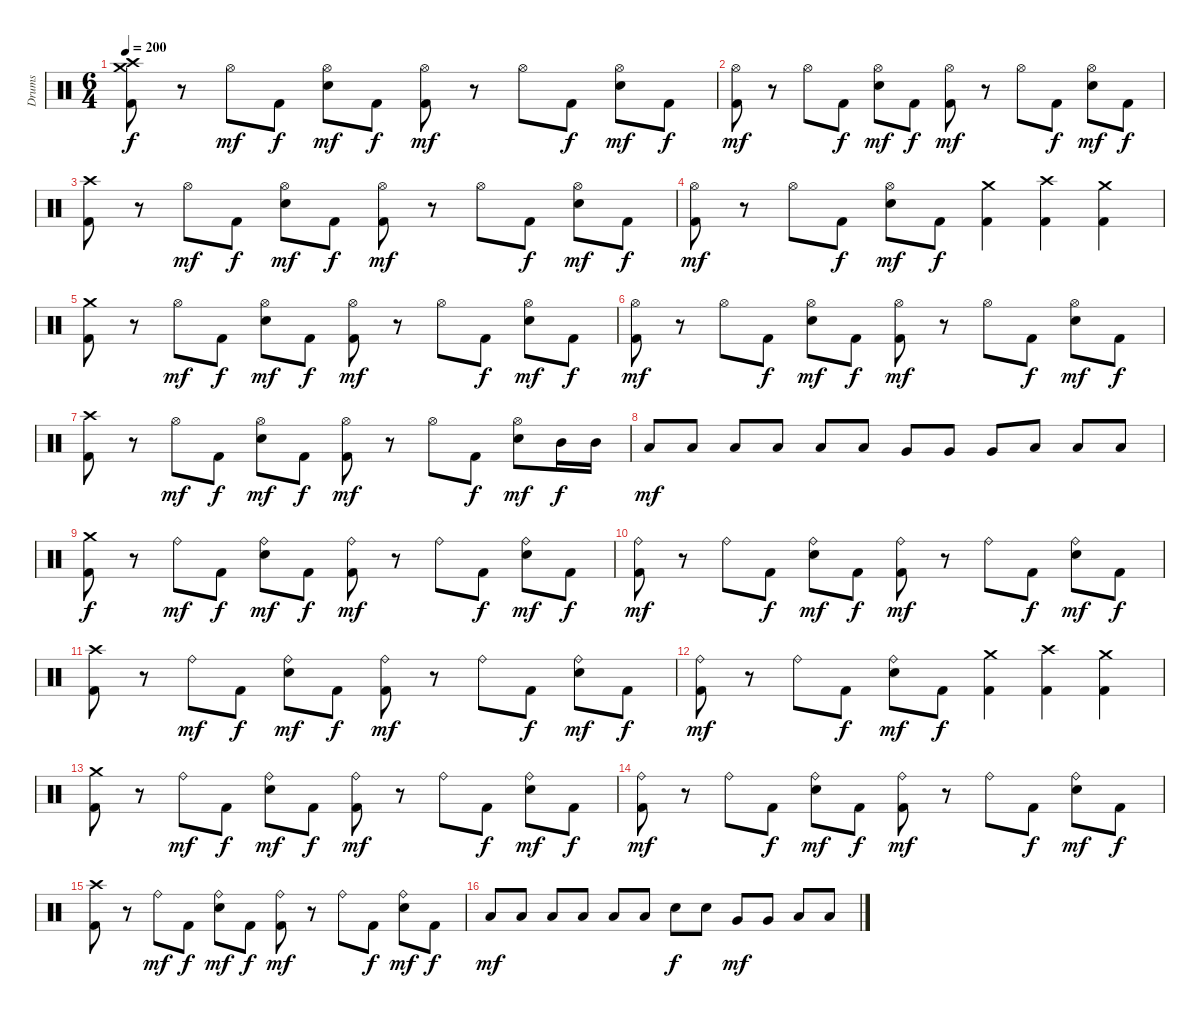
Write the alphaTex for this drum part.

\track ("Drums" "Drums") {instrument percussion}
\staff {score}
\articulation defaults
\ts (6 4)
\tempo 200
\clef neutral
\ks c
("Crash medium (hit)" "Crash high (hit)" "Kick (hit) 2").8{dy f} r.8 "Hi-Hat (open)".8{dy mf} "Kick (hit) 2".8{dy f} ("Hi-Hat (open)" "Snare (hit) 2").8{dy mf} "Kick (hit) 2".8{dy f} ("Hi-Hat (open)" "Kick (hit) 2").8{dy mf} r.8 "Hi-Hat (open)".8 "Kick (hit) 2".8{dy f} ("Hi-Hat (open)" "Snare (hit) 2").8{dy mf} "Kick (hit) 2".8{dy f} |
("Hi-Hat (open)" "Kick (hit) 2").8{dy mf} r.8 "Hi-Hat (open)".8 "Kick (hit) 2".8{dy f} ("Hi-Hat (open)" "Snare (hit) 2").8{dy mf} "Kick (hit) 2".8{dy f} ("Hi-Hat (open)" "Kick (hit) 2").8{dy mf} r.8 "Hi-Hat (open)".8 "Kick (hit) 2".8{dy f} ("Hi-Hat (open)" "Snare (hit) 2").8{dy mf} "Kick (hit) 2".8{dy f} |
("Crash high (hit)" "Kick (hit) 2").8 r.8 "Hi-Hat (open)".8{dy mf} "Kick (hit) 2".8{dy f} ("Hi-Hat (open)" "Snare (hit) 2").8{dy mf} "Kick (hit) 2".8{dy f} ("Hi-Hat (open)" "Kick (hit) 2").8{dy mf} r.8 "Hi-Hat (open)".8 "Kick (hit) 2".8{dy f} ("Hi-Hat (open)" "Snare (hit) 2").8{dy mf} "Kick (hit) 2".8{dy f} |
("Hi-Hat (open)" "Kick (hit) 2").8{dy mf} r.8 "Hi-Hat (open)".8 "Kick (hit) 2".8{dy f} ("Hi-Hat (open)" "Snare (hit) 2").8{dy mf} "Kick (hit) 2".8{dy f} ("Crash medium (hit)" "Kick (hit) 2").4 ("Crash high (hit)" "Kick (hit) 2").4 ("Crash medium (hit)" "Kick (hit) 2").4 |
("Crash medium (hit)" "Kick (hit) 2").8 r.8 "Hi-Hat (open)".8{dy mf} "Kick (hit) 2".8{dy f} ("Hi-Hat (open)" "Snare (hit) 2").8{dy mf} "Kick (hit) 2".8{dy f} ("Hi-Hat (open)" "Kick (hit) 2").8{dy mf} r.8 "Hi-Hat (open)".8 "Kick (hit) 2".8{dy f} ("Hi-Hat (open)" "Snare (hit) 2").8{dy mf} "Kick (hit) 2".8{dy f} |
("Hi-Hat (open)" "Kick (hit) 2").8{dy mf} r.8 "Hi-Hat (open)".8 "Kick (hit) 2".8{dy f} ("Hi-Hat (open)" "Snare (hit) 2").8{dy mf} "Kick (hit) 2".8{dy f} ("Hi-Hat (open)" "Kick (hit) 2").8{dy mf} r.8 "Hi-Hat (open)".8 "Kick (hit) 2".8{dy f} ("Hi-Hat (open)" "Snare (hit) 2").8{dy mf} "Kick (hit) 2".8{dy f} |
("Crash high (hit)" "Kick (hit) 2").8 r.8 "Hi-Hat (open)".8{dy mf} "Kick (hit) 2".8{dy f} ("Hi-Hat (open)" "Snare (hit) 2").8{dy mf} "Kick (hit) 2".8{dy f} ("Hi-Hat (open)" "Kick (hit) 2").8{dy mf} r.8 "Hi-Hat (open)".8 "Kick (hit) 2".8{dy f} ("Hi-Hat (open)" "Snare (hit) 2").8{dy mf} "Mid Tom (hit)".16{dy f} "Mid Tom (hit)".16 |
"Low Tom (hit)".8{dy mf} "Low Tom (hit)".8 "Low Tom (hit)".8 "Low Tom (hit)".8 "Low Tom (hit)".8 "Low Tom (hit)".8 "Very Low Tom (hit)".8 "Very Low Tom (hit)".8 "Very Low Tom (hit)".8 "Low Floor Tom (hit)".8 "Low Floor Tom (hit)".8 "Low Floor Tom (hit)".8 |
("Crash medium (hit)" "Kick (hit) 2").8{dy f} r.8 "Ride (bell)".8{dy mf} "Kick (hit) 2".8{dy f} ("Ride (bell)" "Snare (hit) 2").8{dy mf} "Kick (hit) 2".8{dy f} ("Ride (bell)" "Kick (hit) 2").8{dy mf} r.8 "Ride (bell)".8 "Kick (hit) 2".8{dy f} ("Ride (bell)" "Snare (hit) 2").8{dy mf} "Kick (hit) 2".8{dy f} |
("Ride (bell)" "Kick (hit) 2").8{dy mf} r.8 "Ride (bell)".8 "Kick (hit) 2".8{dy f} ("Ride (bell)" "Snare (hit) 2").8{dy mf} "Kick (hit) 2".8{dy f} ("Ride (bell)" "Kick (hit) 2").8{dy mf} r.8 "Ride (bell)".8 "Kick (hit) 2".8{dy f} ("Ride (bell)" "Snare (hit) 2").8{dy mf} "Kick (hit) 2".8{dy f} |
("Crash high (hit)" "Kick (hit) 2").8 r.8 "Ride (bell)".8{dy mf} "Kick (hit) 2".8{dy f} ("Ride (bell)" "Snare (hit) 2").8{dy mf} "Kick (hit) 2".8{dy f} ("Ride (bell)" "Kick (hit) 2").8{dy mf} r.8 "Ride (bell)".8 "Kick (hit) 2".8{dy f} ("Ride (bell)" "Snare (hit) 2").8{dy mf} "Kick (hit) 2".8{dy f} |
("Ride (bell)" "Kick (hit) 2").8{dy mf} r.8 "Ride (bell)".8 "Kick (hit) 2".8{dy f} ("Ride (bell)" "Snare (hit) 2").8{dy mf} "Kick (hit) 2".8{dy f} ("Crash medium (hit)" "Kick (hit) 2").4 ("Crash high (hit)" "Kick (hit) 2").4 ("Crash medium (hit)" "Kick (hit) 2").4 |
("Crash medium (hit)" "Kick (hit) 2").8 r.8 "Ride (bell)".8{dy mf} "Kick (hit) 2".8{dy f} ("Ride (bell)" "Snare (hit) 2").8{dy mf} "Kick (hit) 2".8{dy f} ("Ride (bell)" "Kick (hit) 2").8{dy mf} r.8 "Ride (bell)".8 "Kick (hit) 2".8{dy f} ("Ride (bell)" "Snare (hit) 2").8{dy mf} "Kick (hit) 2".8{dy f} |
("Ride (bell)" "Kick (hit) 2").8{dy mf} r.8 "Ride (bell)".8 "Kick (hit) 2".8{dy f} ("Ride (bell)" "Snare (hit) 2").8{dy mf} "Kick (hit) 2".8{dy f} ("Ride (bell)" "Kick (hit) 2").8{dy mf} r.8 "Ride (bell)".8 "Kick (hit) 2".8{dy f} ("Ride (bell)" "Snare (hit) 2").8{dy mf} "Kick (hit) 2".8{dy f} |
("Crash high (hit)" "Kick (hit) 2").8 r.8 "Ride (bell)".8{dy mf} "Kick (hit) 2".8{dy f} ("Ride (bell)" "Snare (hit) 2").8{dy mf} "Kick (hit) 2".8{dy f} ("Ride (bell)" "Kick (hit) 2").8{dy mf} r.8 "Ride (bell)".8 "Kick (hit) 2".8{dy f} ("Ride (bell)" "Snare (hit) 2").8{dy mf} "Kick (hit) 2".8{dy f} |
"Low Tom (hit)".8{dy mf} "Low Tom (hit)".8 "Low Tom (hit)".8 "Low Tom (hit)".8 "Low Tom (hit)".8 "Low Tom (hit)".8 "Snare (hit) 2".8{dy f} "Snare (hit) 2".8 "Very Low Tom (hit)".8{dy mf} "Very Low Tom (hit)".8 "Low Floor Tom (hit)".8 "Low Floor Tom (hit)".8
